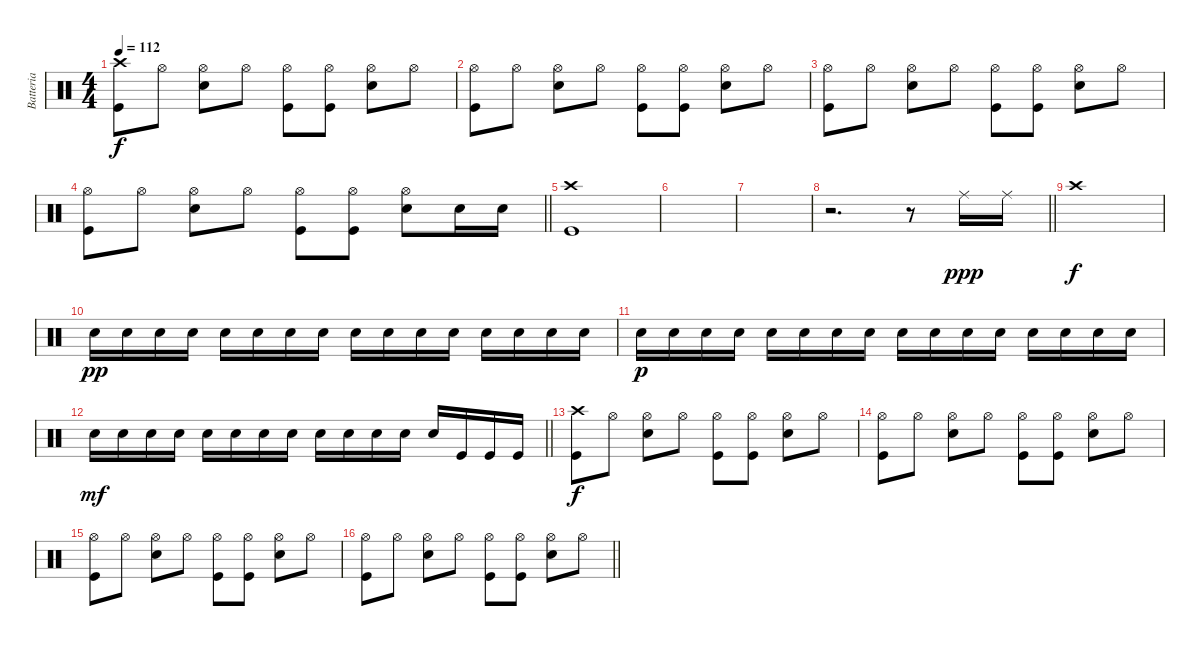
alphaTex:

\track ("Batteria" "Batteria") {instrument percussion}
\staff {score}
\articulation defaults
\ts (4 4)
\tempo 112
\clef neutral
\ks c
("Kick (hit)" "Crash high (hit)").8{dy f} "Hi-Hat (open)".8 ("Snare (hit) 2" "Hi-Hat (open)").8 "Hi-Hat (open)".8 ("Kick (hit)" "Hi-Hat (open)").8 ("Kick (hit)" "Hi-Hat (open)").8 ("Snare (hit) 2" "Hi-Hat (open)").8 "Hi-Hat (open)".8 |
("Kick (hit)" "Hi-Hat (open)").8 "Hi-Hat (open)".8 ("Snare (hit) 2" "Hi-Hat (open)").8 "Hi-Hat (open)".8 ("Kick (hit)" "Hi-Hat (open)").8 ("Kick (hit)" "Hi-Hat (open)").8 ("Snare (hit) 2" "Hi-Hat (open)").8 "Hi-Hat (open)".8 |
("Kick (hit)" "Hi-Hat (open)").8 "Hi-Hat (open)".8 ("Snare (hit) 2" "Hi-Hat (open)").8 "Hi-Hat (open)".8 ("Kick (hit)" "Hi-Hat (open)").8 ("Kick (hit)" "Hi-Hat (open)").8 ("Snare (hit) 2" "Hi-Hat (open)").8 "Hi-Hat (open)".8 |
\barLineRight lightlight
("Kick (hit)" "Hi-Hat (open)").8 "Hi-Hat (open)".8 ("Snare (hit) 2" "Hi-Hat (open)").8 "Hi-Hat (open)".8 ("Kick (hit)" "Hi-Hat (open)").8 ("Kick (hit)" "Hi-Hat (open)").8 ("Snare (hit) 2" "Hi-Hat (open)").8 "Snare (hit) 2".16 "Snare (hit) 2".16 |
("Crash high (hit)" "Kick (hit)").1 |
|
|
\barLineRight lightlight
r.2{d} r.8 "Ride (middle)".16{dy ppp} "Ride (middle)".16 |
"Crash high (hit)".1{dy f} |
"Snare (hit) 2".16{dy pp} "Snare (hit) 2".16 "Snare (hit) 2".16 "Snare (hit) 2".16 "Snare (hit) 2".16 "Snare (hit) 2".16 "Snare (hit) 2".16 "Snare (hit) 2".16 "Snare (hit) 2".16 "Snare (hit) 2".16 "Snare (hit) 2".16 "Snare (hit) 2".16 "Snare (hit) 2".16 "Snare (hit) 2".16 "Snare (hit) 2".16 "Snare (hit) 2".16 |
"Snare (hit) 2".16{dy p} "Snare (hit) 2".16 "Snare (hit) 2".16 "Snare (hit) 2".16 "Snare (hit) 2".16 "Snare (hit) 2".16 "Snare (hit) 2".16 "Snare (hit) 2".16 "Snare (hit) 2".16 "Snare (hit) 2".16 "Snare (hit) 2".16 "Snare (hit) 2".16 "Snare (hit) 2".16 "Snare (hit) 2".16 "Snare (hit) 2".16 "Snare (hit) 2".16 |
\barLineRight lightlight "Snare (hit) 2".16{dy mf} "Snare (hit) 2".16 "Snare (hit) 2".16 "Snare (hit) 2".16 "Snare (hit) 2".16 "Snare (hit) 2".16 "Snare (hit) 2".16 "Snare (hit) 2".16 "Snare (hit) 2".16 "Snare (hit) 2".16 "Snare (hit) 2".16 "Snare (hit) 2".16 "Snare (hit) 2".16 "Kick (hit)".16 "Kick (hit)".16 "Kick (hit)".16
|
("Kick (hit)" "Crash high (hit)").8{dy f} "Hi-Hat (open)".8 ("Snare (hit) 2" "Hi-Hat (open)").8 "Hi-Hat (open)".8 ("Kick (hit)" "Hi-Hat (open)").8 ("Kick (hit)" "Hi-Hat (open)").8 ("Snare (hit) 2" "Hi-Hat (open)").8 "Hi-Hat (open)".8 |
("Kick (hit)" "Hi-Hat (open)").8 "Hi-Hat (open)".8 ("Snare (hit) 2" "Hi-Hat (open)").8 "Hi-Hat (open)".8 ("Kick (hit)" "Hi-Hat (open)").8 ("Kick (hit)" "Hi-Hat (open)").8 ("Snare (hit) 2" "Hi-Hat (open)").8 "Hi-Hat (open)".8 |
("Kick (hit)" "Hi-Hat (open)").8 "Hi-Hat (open)".8 ("Snare (hit) 2" "Hi-Hat (open)").8 "Hi-Hat (open)".8 ("Kick (hit)" "Hi-Hat (open)").8 ("Kick (hit)" "Hi-Hat (open)").8 ("Snare (hit) 2" "Hi-Hat (open)").8 "Hi-Hat (open)".8 |
\barLineRight lightlight
("Kick (hit)" "Hi-Hat (open)").8 "Hi-Hat (open)".8 ("Snare (hit) 2" "Hi-Hat (open)").8 "Hi-Hat (open)".8 ("Kick (hit)" "Hi-Hat (open)").8 ("Kick (hit)" "Hi-Hat (open)").8 ("Snare (hit) 2" "Hi-Hat (open)").8 "Hi-Hat (open)".8
